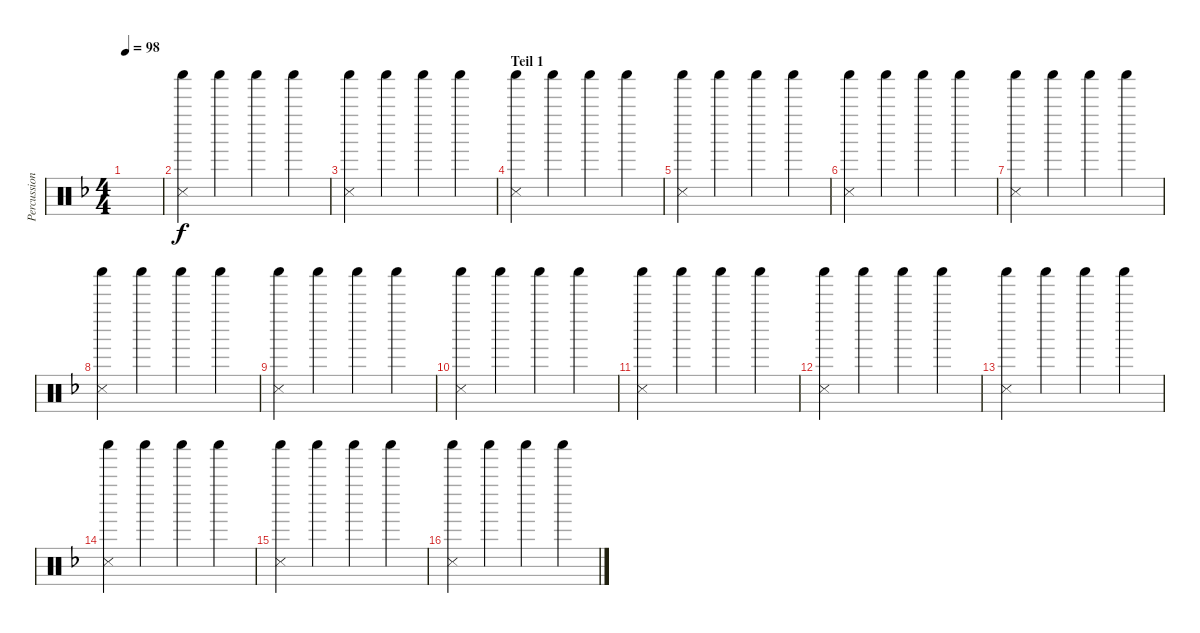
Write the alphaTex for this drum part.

\track ("Percussion" "Percussion") {instrument percussion}
\staff {score}
\articulation defaults
\ts (4 4)
\tempo 98
\clef neutral
\ks dminor
|
("Shaker (hit)" "Snare (side stick) 3").4 "Shaker (hit)".4 "Shaker (hit)".4 "Shaker (hit)".4 |
("Shaker (hit)" "Snare (side stick) 3").4 "Shaker (hit)".4 "Shaker (hit)".4 "Shaker (hit)".4 |
\section ("" "Teil 1")
("Shaker (hit)" "Snare (side stick) 3").4 "Shaker (hit)".4 "Shaker (hit)".4 "Shaker (hit)".4 |
("Shaker (hit)" "Snare (side stick) 3").4 "Shaker (hit)".4 "Shaker (hit)".4 "Shaker (hit)".4 |
("Shaker (hit)" "Snare (side stick) 3").4 "Shaker (hit)".4 "Shaker (hit)".4 "Shaker (hit)".4 |
("Shaker (hit)" "Snare (side stick) 3").4 "Shaker (hit)".4 "Shaker (hit)".4 "Shaker (hit)".4 |
("Shaker (hit)" "Snare (side stick) 3").4 "Shaker (hit)".4 "Shaker (hit)".4 "Shaker (hit)".4 |
("Shaker (hit)" "Snare (side stick) 3").4 "Shaker (hit)".4 "Shaker (hit)".4 "Shaker (hit)".4 |
("Shaker (hit)" "Snare (side stick) 3").4 "Shaker (hit)".4 "Shaker (hit)".4 "Shaker (hit)".4 |
("Shaker (hit)" "Snare (side stick) 3").4 "Shaker (hit)".4 "Shaker (hit)".4 "Shaker (hit)".4 |
("Shaker (hit)" "Snare (side stick) 3").4 "Shaker (hit)".4 "Shaker (hit)".4 "Shaker (hit)".4 |
("Shaker (hit)" "Snare (side stick) 3").4 "Shaker (hit)".4 "Shaker (hit)".4 "Shaker (hit)".4 |
("Shaker (hit)" "Snare (side stick) 3").4 "Shaker (hit)".4 "Shaker (hit)".4 "Shaker (hit)".4 |
("Shaker (hit)" "Snare (side stick) 3").4 "Shaker (hit)".4 "Shaker (hit)".4 "Shaker (hit)".4 |
("Shaker (hit)" "Snare (side stick) 3").4 "Shaker (hit)".4 "Shaker (hit)".4 "Shaker (hit)".4
